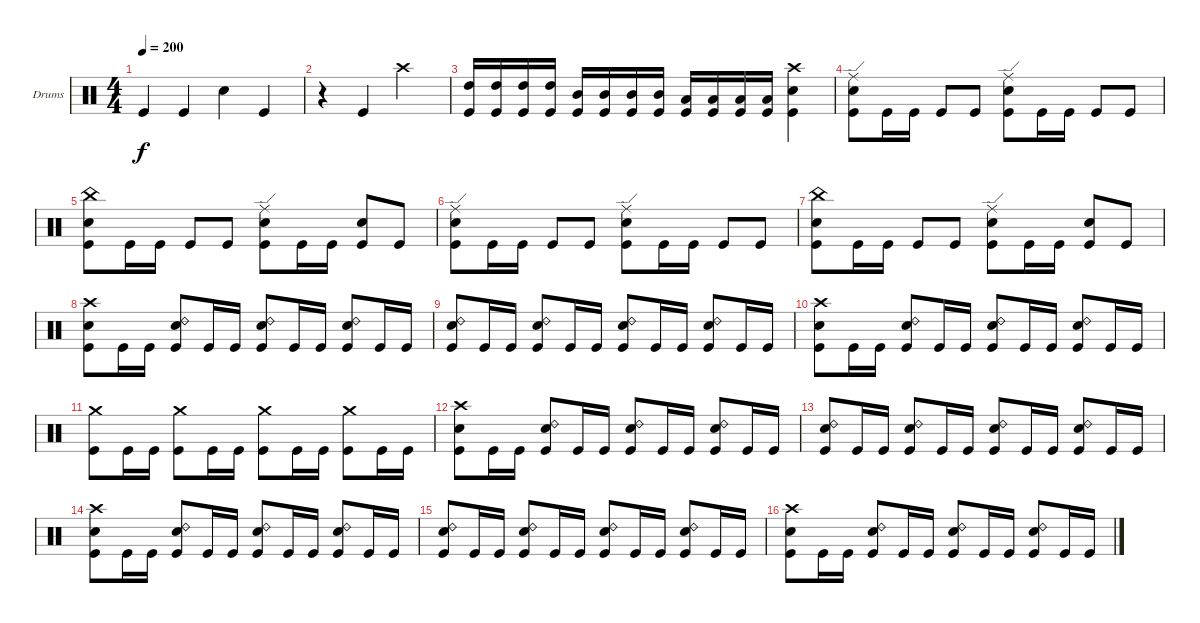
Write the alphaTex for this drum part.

\bracketExtendMode groupsimilarinstruments
\firstSystemTrackNameOrientation horizontal
\otherSystemsTrackNameOrientation horizontal
\track ("Canadien" "Drums") {instrument percussion}
\staff {score}
\articulation defaults
\ts (4 4)
\tempo 200
\clef neutral
\ks c "Kick (hit)".4{dy f} "Kick (hit)".4 "Snare (hit) 2".4 "Kick (hit)".4
|
r.4 "Kick (hit)".4 "Crash high (hit)".2 |
("High Tom (hit)" "Kick (hit)").16 ("High Tom (hit)" "Kick (hit)").16 ("High Tom (hit)" "Kick (hit)").16 ("High Tom (hit)" "Kick (hit)").16 ("Mid Tom (hit)" "Kick (hit)").16 ("Mid Tom (hit)" "Kick (hit)").16 ("Mid Tom (hit)" "Kick (hit)").16 ("Mid Tom (hit)" "Kick (hit)").16 ("Low Tom (hit)" "Kick (hit)").16 ("Low Tom (hit)" "Kick (hit)").16 ("Low Tom (hit)" "Kick (hit)").16 ("Low Tom (hit)" "Kick (hit)").16 ("Snare (hit) 2" "Crash high (hit)" "Kick (hit)").4 |
("Ride (edge)" "Snare (hit) 2" "Kick (hit)").8 "Kick (hit)".16 "Kick (hit)".16 "Kick (hit)".8 "Kick (hit)".8 ("Ride (edge)" "Snare (hit) 2" "Kick (hit)").8 "Kick (hit)".16 "Kick (hit)".16 "Kick (hit)".8 "Kick (hit)".8 |
("China (hit)" "Snare (hit) 2" "Kick (hit)").8 "Kick (hit)".16 "Kick (hit)".16 "Kick (hit)".8 "Kick (hit)".8 ("Ride (edge)" "Snare (hit) 2" "Kick (hit)").8 "Kick (hit)".16 "Kick (hit)".16 ("Snare (hit) 2" "Kick (hit)").8 "Kick (hit)".8 |
("Ride (edge)" "Snare (hit) 2" "Kick (hit)").8 "Kick (hit)".16 "Kick (hit)".16 "Kick (hit)".8 "Kick (hit)".8 ("Ride (edge)" "Snare (hit) 2" "Kick (hit)").8 "Kick (hit)".16 "Kick (hit)".16 "Kick (hit)".8 "Kick (hit)".8 |
("China (hit)" "Snare (hit) 2" "Kick (hit)").8 "Kick (hit)".16 "Kick (hit)".16 "Kick (hit)".8 "Kick (hit)".8 ("Ride (edge)" "Snare (hit) 2" "Kick (hit)").8 "Kick (hit)".16 "Kick (hit)".16 ("Snare (hit) 2" "Kick (hit)").8 "Kick (hit)".8 |
("Crash high (hit)" "Snare (hit) 2" "Kick (hit)").8 "Kick (hit)".16 "Kick (hit)".16 ("Ride (bell) 2" "Snare (hit) 2" "Kick (hit)").8 "Kick (hit)".16 "Kick (hit)".16 ("Ride (bell) 2" "Snare (hit) 2" "Kick (hit)").8 "Kick (hit)".16 "Kick (hit)".16 ("Ride (bell) 2" "Snare (hit) 2" "Kick (hit)").8 "Kick (hit)".16 "Kick (hit)".16 |
("Ride (bell) 2" "Snare (hit) 2" "Kick (hit)").8 "Kick (hit)".16 "Kick (hit)".16 ("Ride (bell) 2" "Snare (hit) 2" "Kick (hit)").8 "Kick (hit)".16 "Kick (hit)".16 ("Ride (bell) 2" "Snare (hit) 2" "Kick (hit)").8 "Kick (hit)".16 "Kick (hit)".16 ("Ride (bell) 2" "Snare (hit) 2" "Kick (hit)").8 "Kick (hit)".16 "Kick (hit)".16 |
("Crash high (hit)" "Snare (hit) 2" "Kick (hit)").8 "Kick (hit)".16 "Kick (hit)".16 ("Ride (bell) 2" "Snare (hit) 2" "Kick (hit)").8 "Kick (hit)".16 "Kick (hit)".16 ("Ride (bell) 2" "Snare (hit) 2" "Kick (hit)").8 "Kick (hit)".16 "Kick (hit)".16 ("Ride (bell) 2" "Snare (hit) 2" "Kick (hit)").8 "Kick (hit)".16 "Kick (hit)".16 |
("Crash medium (hit)" "Kick (hit)").8 "Kick (hit)".16 "Kick (hit)".16 ("Crash medium (hit)" "Kick (hit)").8 "Kick (hit)".16 "Kick (hit)".16 ("Crash medium (hit)" "Kick (hit)").8 "Kick (hit)".16 "Kick (hit)".16 ("Crash medium (hit)" "Kick (hit)").8 "Kick (hit)".16 "Kick (hit)".16 |
("Crash high (hit)" "Snare (hit) 2" "Kick (hit)").8 "Kick (hit)".16 "Kick (hit)".16 ("Ride (bell) 2" "Snare (hit) 2" "Kick (hit)").8 "Kick (hit)".16 "Kick (hit)".16 ("Ride (bell) 2" "Snare (hit) 2" "Kick (hit)").8 "Kick (hit)".16 "Kick (hit)".16 ("Ride (bell) 2" "Snare (hit) 2" "Kick (hit)").8 "Kick (hit)".16 "Kick (hit)".16 |
("Ride (bell) 2" "Snare (hit) 2" "Kick (hit)").8 "Kick (hit)".16 "Kick (hit)".16 ("Ride (bell) 2" "Snare (hit) 2" "Kick (hit)").8 "Kick (hit)".16 "Kick (hit)".16 ("Ride (bell) 2" "Snare (hit) 2" "Kick (hit)").8 "Kick (hit)".16 "Kick (hit)".16 ("Ride (bell) 2" "Snare (hit) 2" "Kick (hit)").8 "Kick (hit)".16 "Kick (hit)".16 |
("Crash high (hit)" "Snare (hit) 2" "Kick (hit)").8 "Kick (hit)".16 "Kick (hit)".16 ("Ride (bell) 2" "Snare (hit) 2" "Kick (hit)").8 "Kick (hit)".16 "Kick (hit)".16 ("Ride (bell) 2" "Snare (hit) 2" "Kick (hit)").8 "Kick (hit)".16 "Kick (hit)".16 ("Ride (bell) 2" "Snare (hit) 2" "Kick (hit)").8 "Kick (hit)".16 "Kick (hit)".16 |
("Ride (bell) 2" "Snare (hit) 2" "Kick (hit)").8 "Kick (hit)".16 "Kick (hit)".16 ("Ride (bell) 2" "Snare (hit) 2" "Kick (hit)").8 "Kick (hit)".16 "Kick (hit)".16 ("Ride (bell) 2" "Snare (hit) 2" "Kick (hit)").8 "Kick (hit)".16 "Kick (hit)".16 ("Ride (bell) 2" "Snare (hit) 2" "Kick (hit)").8 "Kick (hit)".16 "Kick (hit)".16 |
("Crash high (hit)" "Snare (hit) 2" "Kick (hit)").8 "Kick (hit)".16 "Kick (hit)".16 ("Ride (bell) 2" "Snare (hit) 2" "Kick (hit)").8 "Kick (hit)".16 "Kick (hit)".16 ("Ride (bell) 2" "Snare (hit) 2" "Kick (hit)").8 "Kick (hit)".16 "Kick (hit)".16 ("Ride (bell) 2" "Snare (hit) 2" "Kick (hit)").8 "Kick (hit)".16 "Kick (hit)".16
